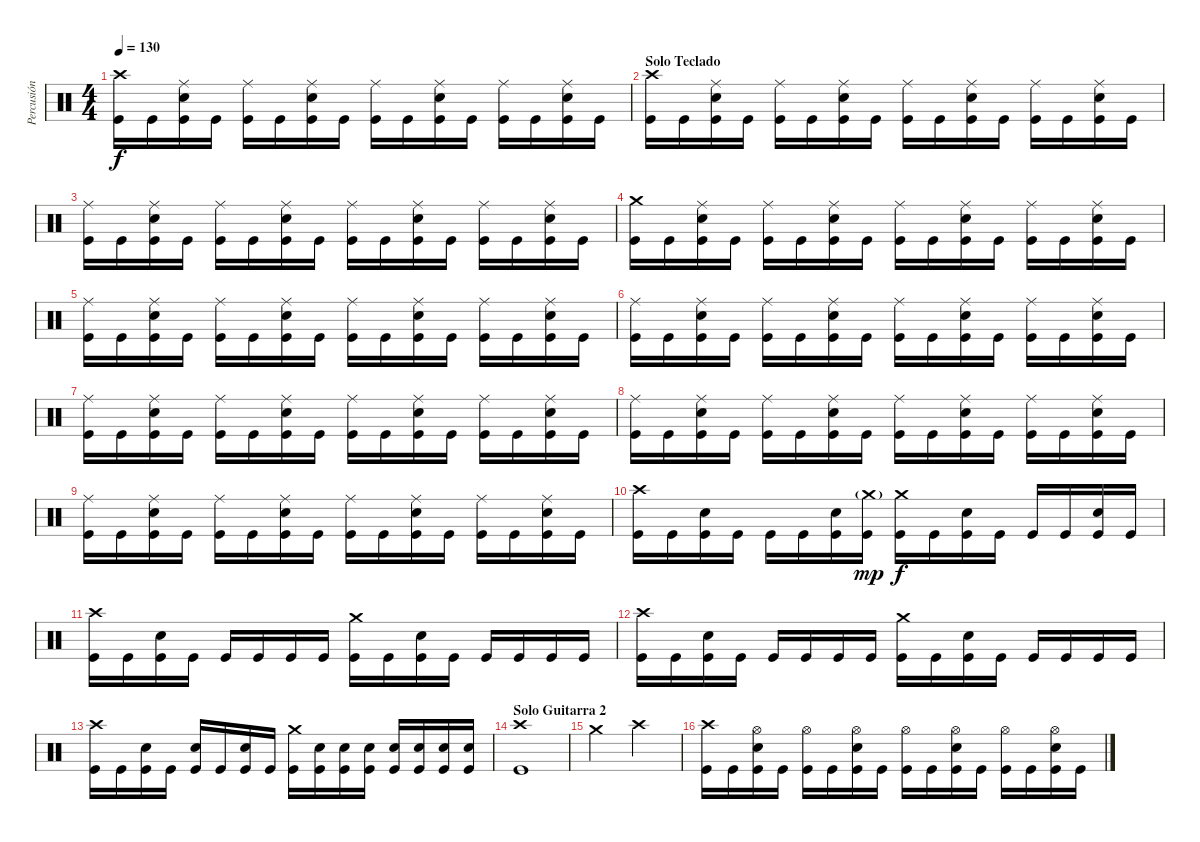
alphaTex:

\track ("Percusión" "Percusión") {instrument percussion}
\staff {score}
\articulation defaults
\ts (4 4)
\tempo 130
\clef neutral
\ks c
("Crash high (hit)" "Kick (hit)").16{dy f} "Kick (hit)".16 ("Ride (middle)" "Electric Snare (hit)" "Kick (hit)").16 "Kick (hit)".16 ("Ride (middle)" "Kick (hit)").16 "Kick (hit)".16 ("Ride (middle)" "Electric Snare (hit)" "Kick (hit)").16 "Kick (hit)".16 ("Ride (middle)" "Kick (hit)").16 "Kick (hit)".16 ("Ride (middle)" "Electric Snare (hit)" "Kick (hit)").16 "Kick (hit)".16 ("Ride (middle)" "Kick (hit)").16 "Kick (hit)".16 ("Ride (middle)" "Electric Snare (hit)" "Kick (hit)").16 "Kick (hit)".16 |
\section ("" "Solo Teclado")
("Crash high (hit)" "Kick (hit)").16 "Kick (hit)".16 ("Ride (middle)" "Electric Snare (hit)" "Kick (hit)").16 "Kick (hit)".16 ("Ride (middle)" "Kick (hit)").16 "Kick (hit)".16 ("Ride (middle)" "Electric Snare (hit)" "Kick (hit)").16 "Kick (hit)".16 ("Ride (middle)" "Kick (hit)").16 "Kick (hit)".16 ("Ride (middle)" "Electric Snare (hit)" "Kick (hit)").16 "Kick (hit)".16 ("Ride (middle)" "Kick (hit)").16 "Kick (hit)".16 ("Ride (middle)" "Electric Snare (hit)" "Kick (hit)").16 "Kick (hit)".16 |
("Ride (middle)" "Kick (hit)").16 "Kick (hit)".16 ("Ride (middle)" "Electric Snare (hit)" "Kick (hit)").16 "Kick (hit)".16 ("Ride (middle)" "Kick (hit)").16 "Kick (hit)".16 ("Ride (middle)" "Electric Snare (hit)" "Kick (hit)").16 "Kick (hit)".16 ("Ride (middle)" "Kick (hit)").16 "Kick (hit)".16 ("Ride (middle)" "Electric Snare (hit)" "Kick (hit)").16 "Kick (hit)".16 ("Ride (middle)" "Kick (hit)").16 "Kick (hit)".16 ("Ride (middle)" "Electric Snare (hit)" "Kick (hit)").16 "Kick (hit)".16 |
("Crash medium (hit)" "Kick (hit)").16 "Kick (hit)".16 ("Ride (middle)" "Electric Snare (hit)" "Kick (hit)").16 "Kick (hit)".16 ("Ride (middle)" "Kick (hit)").16 "Kick (hit)".16 ("Ride (middle)" "Electric Snare (hit)" "Kick (hit)").16 "Kick (hit)".16 ("Ride (middle)" "Kick (hit)").16 "Kick (hit)".16 ("Ride (middle)" "Electric Snare (hit)" "Kick (hit)").16 "Kick (hit)".16 ("Ride (middle)" "Kick (hit)").16 "Kick (hit)".16 ("Ride (middle)" "Electric Snare (hit)" "Kick (hit)").16 "Kick (hit)".16 |
("Ride (middle)" "Kick (hit)").16 "Kick (hit)".16 ("Ride (middle)" "Electric Snare (hit)" "Kick (hit)").16 "Kick (hit)".16 ("Ride (middle)" "Kick (hit)").16 "Kick (hit)".16 ("Ride (middle)" "Electric Snare (hit)" "Kick (hit)").16 "Kick (hit)".16 ("Ride (middle)" "Kick (hit)").16 "Kick (hit)".16 ("Ride (middle)" "Electric Snare (hit)" "Kick (hit)").16 "Kick (hit)".16 ("Ride (middle)" "Kick (hit)").16 "Kick (hit)".16 ("Ride (middle)" "Electric Snare (hit)" "Kick (hit)").16 "Kick (hit)".16 |
("Ride (middle)" "Kick (hit)").16 "Kick (hit)".16 ("Ride (middle)" "Electric Snare (hit)" "Kick (hit)").16 "Kick (hit)".16 ("Ride (middle)" "Kick (hit)").16 "Kick (hit)".16 ("Ride (middle)" "Electric Snare (hit)" "Kick (hit)").16 "Kick (hit)".16 ("Ride (middle)" "Kick (hit)").16 "Kick (hit)".16 ("Ride (middle)" "Electric Snare (hit)" "Kick (hit)").16 "Kick (hit)".16 ("Ride (middle)" "Kick (hit)").16 "Kick (hit)".16 ("Ride (middle)" "Electric Snare (hit)" "Kick (hit)").16 "Kick (hit)".16 |
("Ride (middle)" "Kick (hit)").16 "Kick (hit)".16 ("Ride (middle)" "Electric Snare (hit)" "Kick (hit)").16 "Kick (hit)".16 ("Ride (middle)" "Kick (hit)").16 "Kick (hit)".16 ("Ride (middle)" "Electric Snare (hit)" "Kick (hit)").16 "Kick (hit)".16 ("Ride (middle)" "Kick (hit)").16 "Kick (hit)".16 ("Ride (middle)" "Electric Snare (hit)" "Kick (hit)").16 "Kick (hit)".16 ("Ride (middle)" "Kick (hit)").16 "Kick (hit)".16 ("Ride (middle)" "Electric Snare (hit)" "Kick (hit)").16 "Kick (hit)".16 |
("Ride (middle)" "Kick (hit)").16 "Kick (hit)".16 ("Ride (middle)" "Electric Snare (hit)" "Kick (hit)").16 "Kick (hit)".16 ("Ride (middle)" "Kick (hit)").16 "Kick (hit)".16 ("Ride (middle)" "Electric Snare (hit)" "Kick (hit)").16 "Kick (hit)".16 ("Ride (middle)" "Kick (hit)").16 "Kick (hit)".16 ("Ride (middle)" "Electric Snare (hit)" "Kick (hit)").16 "Kick (hit)".16 ("Ride (middle)" "Kick (hit)").16 "Kick (hit)".16 ("Ride (middle)" "Electric Snare (hit)" "Kick (hit)").16 "Kick (hit)".16 |
("Ride (middle)" "Kick (hit)").16 "Kick (hit)".16 ("Ride (middle)" "Electric Snare (hit)" "Kick (hit)").16 "Kick (hit)".16 ("Ride (middle)" "Kick (hit)").16 "Kick (hit)".16 ("Ride (middle)" "Electric Snare (hit)" "Kick (hit)").16 "Kick (hit)".16 ("Ride (middle)" "Kick (hit)").16 "Kick (hit)".16 ("Ride (middle)" "Electric Snare (hit)" "Kick (hit)").16 "Kick (hit)".16 ("Ride (middle)" "Kick (hit)").16 "Kick (hit)".16 ("Ride (middle)" "Electric Snare (hit)" "Kick (hit)").16 "Kick (hit)".16 |
("Crash high (hit)" "Kick (hit)").16 "Kick (hit)".16 ("Electric Snare (hit)" "Kick (hit)").16 "Kick (hit)".16 "Kick (hit)".16 "Kick (hit)".16 ("Electric Snare (hit)" "Kick (hit)").16 ("Crash medium (hit)"{g} "Kick (hit)").16{dy mp} ("Crash medium (hit)" "Kick (hit)").16{dy f} "Kick (hit)".16 ("Electric Snare (hit)" "Kick (hit)").16 "Kick (hit)".16 "Kick (hit)".16 "Kick (hit)".16 ("Electric Snare (hit)" "Kick (hit)").16 "Kick (hit)".16 |
("Crash high (hit)" "Kick (hit)").16 "Kick (hit)".16 ("Electric Snare (hit)" "Kick (hit)").16 "Kick (hit)".16 "Kick (hit)".16 "Kick (hit)".16 "Kick (hit)".16 "Kick (hit)".16 ("Crash medium (hit)" "Kick (hit)").16 "Kick (hit)".16 ("Electric Snare (hit)" "Kick (hit)").16 "Kick (hit)".16 "Kick (hit)".16 "Kick (hit)".16 "Kick (hit)".16 "Kick (hit)".16 |
("Crash high (hit)" "Kick (hit)").16 "Kick (hit)".16 ("Electric Snare (hit)" "Kick (hit)").16 "Kick (hit)".16 "Kick (hit)".16 "Kick (hit)".16 "Kick (hit)".16 "Kick (hit)".16 ("Crash medium (hit)" "Kick (hit)").16 "Kick (hit)".16 ("Electric Snare (hit)" "Kick (hit)").16 "Kick (hit)".16 "Kick (hit)".16 "Kick (hit)".16 "Kick (hit)".16 "Kick (hit)".16 |
("Crash high (hit)" "Kick (hit)").16 "Kick (hit)".16 ("Electric Snare (hit)" "Kick (hit)").16 "Kick (hit)".16 ("Electric Snare (hit)" "Kick (hit)").16 "Kick (hit)".16 ("Electric Snare (hit)" "Kick (hit)").16 "Kick (hit)".16 ("Crash medium (hit)" "Kick (hit)").16 ("Electric Snare (hit)" "Kick (hit)").16 ("Electric Snare (hit)" "Kick (hit)").16 ("Electric Snare (hit)" "Kick (hit)").16 ("Electric Snare (hit)" "Kick (hit)").16 ("Electric Snare (hit)" "Kick (hit)").16 ("Electric Snare (hit)" "Kick (hit)").16 ("Electric Snare (hit)" "Kick (hit)").16 |
\section ("" "Solo Guitarra 2")
("Crash high (hit)" "Kick (hit)").1 |
"Crash medium (hit)".2 "Crash high (hit)".2 |
("Crash high (hit)" "Kick (hit)").16 "Kick (hit)".16 ("Hi-Hat (open)" "Electric Snare (hit)" "Kick (hit)").16 "Kick (hit)".16 ("Hi-Hat (open)" "Kick (hit)").16 "Kick (hit)".16 ("Hi-Hat (open)" "Electric Snare (hit)" "Kick (hit)").16 "Kick (hit)".16 ("Hi-Hat (open)" "Kick (hit)").16 "Kick (hit)".16 ("Hi-Hat (open)" "Electric Snare (hit)" "Kick (hit)").16 "Kick (hit)".16 ("Hi-Hat (open)" "Kick (hit)").16 "Kick (hit)".16 ("Hi-Hat (open)" "Electric Snare (hit)" "Kick (hit)").16 "Kick (hit)".16
